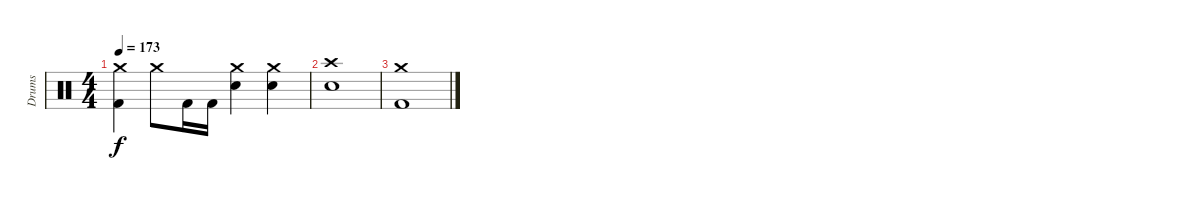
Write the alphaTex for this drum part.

\track ("Drums" "Drums") {instrument percussion}
\staff {score}
\articulation defaults
\ts (4 4)
\tempo 173
\clef neutral
\ks c
("Crash medium (hit)" "Kick (hit) 2").4{dy f} "Crash medium (hit)".8 "Kick (hit) 2".16 "Kick (hit) 2".16 ("Crash medium (hit)" "Electric Snare (hit)").4 ("Crash medium (hit)" "Electric Snare (hit)").4 |
("Crash high (hit)" "Electric Snare (hit)").1 |
("Crash medium (hit)" "Kick (hit) 2").1
